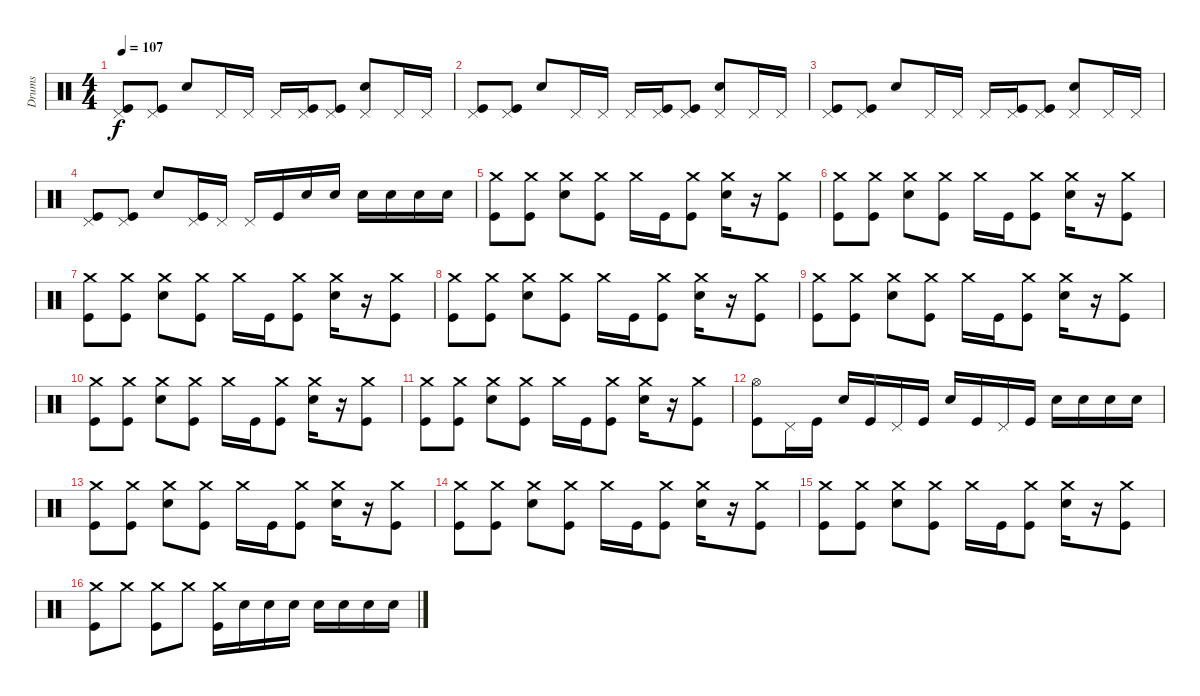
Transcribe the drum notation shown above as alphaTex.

\track ("Drums" "Drums") {instrument percussion}
\staff {score}
\articulation defaults
\ts (4 4)
\tempo 107
\clef neutral
\ks c
("Pedal Hi-Hat (hit)" "Kick (hit)").8{dy f} ("Pedal Hi-Hat (hit)" "Kick (hit)").8 "Electric Snare (hit)".8 "Pedal Hi-Hat (hit)".16 "Pedal Hi-Hat (hit)".16 "Pedal Hi-Hat (hit)".16 ("Pedal Hi-Hat (hit)" "Kick (hit)").16 ("Pedal Hi-Hat (hit)" "Kick (hit)").8 ("Pedal Hi-Hat (hit)" "Electric Snare (hit)").8 "Pedal Hi-Hat (hit)".16 "Pedal Hi-Hat (hit)".16 |
("Pedal Hi-Hat (hit)" "Kick (hit)").8 ("Pedal Hi-Hat (hit)" "Kick (hit)").8 "Electric Snare (hit)".8 "Pedal Hi-Hat (hit)".16 "Pedal Hi-Hat (hit)".16 "Pedal Hi-Hat (hit)".16 ("Pedal Hi-Hat (hit)" "Kick (hit)").16 ("Pedal Hi-Hat (hit)" "Kick (hit)").8 ("Pedal Hi-Hat (hit)" "Electric Snare (hit)").8 "Pedal Hi-Hat (hit)".16 "Pedal Hi-Hat (hit)".16 |
("Pedal Hi-Hat (hit)" "Kick (hit)").8 ("Pedal Hi-Hat (hit)" "Kick (hit)").8 "Electric Snare (hit)".8 "Pedal Hi-Hat (hit)".16 "Pedal Hi-Hat (hit)".16 "Pedal Hi-Hat (hit)".16 ("Pedal Hi-Hat (hit)" "Kick (hit)").16 ("Pedal Hi-Hat (hit)" "Kick (hit)").8 ("Pedal Hi-Hat (hit)" "Electric Snare (hit)").8 "Pedal Hi-Hat (hit)".16 "Pedal Hi-Hat (hit)".16 |
("Pedal Hi-Hat (hit)" "Kick (hit)").8 ("Pedal Hi-Hat (hit)" "Kick (hit)").8 "Electric Snare (hit)".8 ("Pedal Hi-Hat (hit)" "Kick (hit)").16 "Pedal Hi-Hat (hit)".16 "Pedal Hi-Hat (hit)".16 "Kick (hit)".16 "Electric Snare (hit)".16 "Electric Snare (hit)".16 "Electric Snare (hit)".16 "Electric Snare (hit)".16 "Electric Snare (hit)".16 "Electric Snare (hit)".16 |
("Crash medium (hit)" "Kick (hit)").8 ("Crash medium (hit)" "Kick (hit)").8 ("Crash medium (hit)" "Electric Snare (hit)").8 ("Crash medium (hit)" "Kick (hit)").8 "Crash medium (hit)".16 "Kick (hit)".16 ("Crash medium (hit)" "Kick (hit)").8 ("Crash medium (hit)" "Electric Snare (hit)").16 r.16 ("Crash medium (hit)" "Kick (hit)").8 |
("Crash medium (hit)" "Kick (hit)").8 ("Crash medium (hit)" "Kick (hit)").8 ("Crash medium (hit)" "Electric Snare (hit)").8 ("Crash medium (hit)" "Kick (hit)").8 "Crash medium (hit)".16 "Kick (hit)".16 ("Crash medium (hit)" "Kick (hit)").8 ("Crash medium (hit)" "Electric Snare (hit)").16 r.16 ("Crash medium (hit)" "Kick (hit)").8 |
("Crash medium (hit)" "Kick (hit)").8 ("Crash medium (hit)" "Kick (hit)").8 ("Crash medium (hit)" "Electric Snare (hit)").8 ("Crash medium (hit)" "Kick (hit)").8 "Crash medium (hit)".16 "Kick (hit)".16 ("Crash medium (hit)" "Kick (hit)").8 ("Crash medium (hit)" "Electric Snare (hit)").16 r.16 ("Crash medium (hit)" "Kick (hit)").8 |
("Crash medium (hit)" "Kick (hit)").8 ("Crash medium (hit)" "Kick (hit)").8 ("Crash medium (hit)" "Electric Snare (hit)").8 ("Crash medium (hit)" "Kick (hit)").8 "Crash medium (hit)".16 "Kick (hit)".16 ("Crash medium (hit)" "Kick (hit)").8 ("Crash medium (hit)" "Electric Snare (hit)").16 r.16 ("Crash medium (hit)" "Kick (hit)").8 |
("Crash medium (hit)" "Kick (hit)").8 ("Crash medium (hit)" "Kick (hit)").8 ("Crash medium (hit)" "Electric Snare (hit)").8 ("Crash medium (hit)" "Kick (hit)").8 "Crash medium (hit)".16 "Kick (hit)".16 ("Crash medium (hit)" "Kick (hit)").8 ("Crash medium (hit)" "Electric Snare (hit)").16 r.16 ("Crash medium (hit)" "Kick (hit)").8 |
("Crash medium (hit)" "Kick (hit)").8 ("Crash medium (hit)" "Kick (hit)").8 ("Crash medium (hit)" "Electric Snare (hit)").8 ("Crash medium (hit)" "Kick (hit)").8 "Crash medium (hit)".16 "Kick (hit)".16 ("Crash medium (hit)" "Kick (hit)").8 ("Crash medium (hit)" "Electric Snare (hit)").16 r.16 ("Crash medium (hit)" "Kick (hit)").8 |
("Crash medium (hit)" "Kick (hit)").8 ("Crash medium (hit)" "Kick (hit)").8 ("Crash medium (hit)" "Electric Snare (hit)").8 ("Crash medium (hit)" "Kick (hit)").8 "Crash medium (hit)".16 "Kick (hit)".16 ("Crash medium (hit)" "Kick (hit)").8 ("Crash medium (hit)" "Electric Snare (hit)").16 r.16 ("Crash medium (hit)" "Kick (hit)").8 |
("Hi-Hat (open)" "Kick (hit)").8 "Pedal Hi-Hat (hit)".16 "Kick (hit)".16 "Electric Snare (hit)".16 "Kick (hit)".16 "Pedal Hi-Hat (hit)".16 "Kick (hit)".16 "Electric Snare (hit)".16 "Kick (hit)".16 "Pedal Hi-Hat (hit)".16 "Kick (hit)".16 "Electric Snare (hit)".16 "Electric Snare (hit)".16 "Electric Snare (hit)".16 "Electric Snare (hit)".16 |
("Crash medium (hit)" "Kick (hit)").8 ("Crash medium (hit)" "Kick (hit)").8 ("Crash medium (hit)" "Electric Snare (hit)").8 ("Crash medium (hit)" "Kick (hit)").8 "Crash medium (hit)".16 "Kick (hit)".16 ("Crash medium (hit)" "Kick (hit)").8 ("Crash medium (hit)" "Electric Snare (hit)").16 r.16 ("Crash medium (hit)" "Kick (hit)").8 |
("Crash medium (hit)" "Kick (hit)").8 ("Crash medium (hit)" "Kick (hit)").8 ("Crash medium (hit)" "Electric Snare (hit)").8 ("Crash medium (hit)" "Kick (hit)").8 "Crash medium (hit)".16 "Kick (hit)".16 ("Crash medium (hit)" "Kick (hit)").8 ("Crash medium (hit)" "Electric Snare (hit)").16 r.16 ("Crash medium (hit)" "Kick (hit)").8 |
("Crash medium (hit)" "Kick (hit)").8 ("Crash medium (hit)" "Kick (hit)").8 ("Crash medium (hit)" "Electric Snare (hit)").8 ("Crash medium (hit)" "Kick (hit)").8 "Crash medium (hit)".16 "Kick (hit)".16 ("Crash medium (hit)" "Kick (hit)").8 ("Crash medium (hit)" "Electric Snare (hit)").16 r.16 ("Crash medium (hit)" "Kick (hit)").8 |
("Crash medium (hit)" "Kick (hit)").8 "Crash medium (hit)".8 ("Crash medium (hit)" "Kick (hit)").8 "Crash medium (hit)".8 ("Crash medium (hit)" "Kick (hit)").16 "Electric Snare (hit)".16 "Electric Snare (hit)".16 "Electric Snare (hit)".16 "Electric Snare (hit)".16 "Electric Snare (hit)".16 "Electric Snare (hit)".16 "Electric Snare (hit)".16
